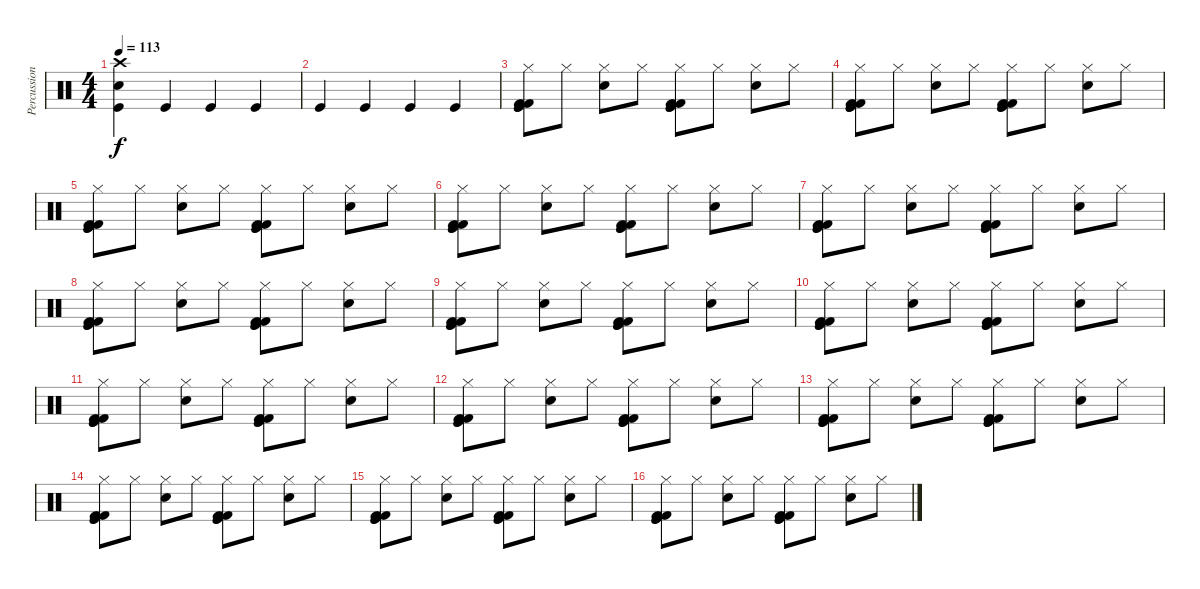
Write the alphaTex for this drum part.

\track ("Percussions" "Percussion") {instrument percussion}
\staff {score}
\articulation defaults
\ts (4 4)
\tempo 113
\clef neutral
\ks c
("Kick (hit)" "Electric Snare (hit)" "Crash high (hit)").4{dy f} "Kick (hit)".4 "Kick (hit)".4 "Kick (hit)".4 |
"Kick (hit)".4 "Kick (hit)".4 "Kick (hit)".4 "Kick (hit)".4 |
("Kick (hit)" "Hi-Hat (closed)" "Kick (hit) 2" "Kick (hit)" "Kick (hit) 2").8 "Hi-Hat (closed)".8 ("Hi-Hat (closed)" "Electric Snare (hit)").8 "Hi-Hat (closed)".8 ("Kick (hit)" "Hi-Hat (closed)" "Kick (hit) 2" "Kick (hit)" "Kick (hit) 2").8 "Hi-Hat (closed)".8 ("Hi-Hat (closed)" "Electric Snare (hit)").8 "Hi-Hat (closed)".8 |
("Kick (hit)" "Hi-Hat (closed)" "Kick (hit) 2" "Kick (hit)" "Kick (hit) 2").8 "Hi-Hat (closed)".8 ("Hi-Hat (closed)" "Electric Snare (hit)").8 "Hi-Hat (closed)".8 ("Kick (hit)" "Hi-Hat (closed)" "Kick (hit) 2" "Kick (hit)" "Kick (hit) 2").8 "Hi-Hat (closed)".8 ("Hi-Hat (closed)" "Electric Snare (hit)").8 "Hi-Hat (closed)".8 |
("Kick (hit)" "Hi-Hat (closed)" "Kick (hit) 2" "Kick (hit)" "Kick (hit) 2").8 "Hi-Hat (closed)".8 ("Hi-Hat (closed)" "Electric Snare (hit)").8 "Hi-Hat (closed)".8 ("Kick (hit)" "Hi-Hat (closed)" "Kick (hit) 2" "Kick (hit)" "Kick (hit) 2").8 "Hi-Hat (closed)".8 ("Hi-Hat (closed)" "Electric Snare (hit)").8 "Hi-Hat (closed)".8 |
("Kick (hit)" "Hi-Hat (closed)" "Kick (hit) 2" "Kick (hit)" "Kick (hit) 2").8 "Hi-Hat (closed)".8 ("Hi-Hat (closed)" "Electric Snare (hit)").8 "Hi-Hat (closed)".8 ("Kick (hit)" "Hi-Hat (closed)" "Kick (hit) 2" "Kick (hit)" "Kick (hit) 2").8 "Hi-Hat (closed)".8 ("Hi-Hat (closed)" "Electric Snare (hit)").8 "Hi-Hat (closed)".8 |
("Kick (hit)" "Hi-Hat (closed)" "Kick (hit) 2" "Kick (hit)" "Kick (hit) 2").8 "Hi-Hat (closed)".8 ("Hi-Hat (closed)" "Electric Snare (hit)").8 "Hi-Hat (closed)".8 ("Kick (hit)" "Hi-Hat (closed)" "Kick (hit) 2" "Kick (hit)" "Kick (hit) 2").8 "Hi-Hat (closed)".8 ("Hi-Hat (closed)" "Electric Snare (hit)").8 "Hi-Hat (closed)".8 |
("Kick (hit)" "Hi-Hat (closed)" "Kick (hit) 2" "Kick (hit)" "Kick (hit) 2").8 "Hi-Hat (closed)".8 ("Hi-Hat (closed)" "Electric Snare (hit)").8 "Hi-Hat (closed)".8 ("Kick (hit)" "Hi-Hat (closed)" "Kick (hit) 2" "Kick (hit)" "Kick (hit) 2").8 "Hi-Hat (closed)".8 ("Hi-Hat (closed)" "Electric Snare (hit)").8 "Hi-Hat (closed)".8 |
("Kick (hit)" "Hi-Hat (closed)" "Kick (hit) 2" "Kick (hit)" "Kick (hit) 2").8 "Hi-Hat (closed)".8 ("Hi-Hat (closed)" "Electric Snare (hit)").8 "Hi-Hat (closed)".8 ("Kick (hit)" "Hi-Hat (closed)" "Kick (hit) 2" "Kick (hit)" "Kick (hit) 2").8 "Hi-Hat (closed)".8 ("Hi-Hat (closed)" "Electric Snare (hit)").8 "Hi-Hat (closed)".8 |
("Kick (hit)" "Hi-Hat (closed)" "Kick (hit) 2" "Kick (hit)" "Kick (hit) 2").8 "Hi-Hat (closed)".8 ("Hi-Hat (closed)" "Electric Snare (hit)").8 "Hi-Hat (closed)".8 ("Kick (hit)" "Hi-Hat (closed)" "Kick (hit) 2" "Kick (hit)" "Kick (hit) 2").8 "Hi-Hat (closed)".8 ("Hi-Hat (closed)" "Electric Snare (hit)").8 "Hi-Hat (closed)".8 |
("Kick (hit)" "Hi-Hat (closed)" "Kick (hit) 2" "Kick (hit)" "Kick (hit) 2").8 "Hi-Hat (closed)".8 ("Hi-Hat (closed)" "Electric Snare (hit)").8 "Hi-Hat (closed)".8 ("Kick (hit)" "Hi-Hat (closed)" "Kick (hit) 2" "Kick (hit)" "Kick (hit) 2").8 "Hi-Hat (closed)".8 ("Hi-Hat (closed)" "Electric Snare (hit)").8 "Hi-Hat (closed)".8 |
("Kick (hit)" "Hi-Hat (closed)" "Kick (hit) 2" "Kick (hit)" "Kick (hit) 2").8 "Hi-Hat (closed)".8 ("Hi-Hat (closed)" "Electric Snare (hit)").8 "Hi-Hat (closed)".8 ("Kick (hit)" "Hi-Hat (closed)" "Kick (hit) 2" "Kick (hit)" "Kick (hit) 2").8 "Hi-Hat (closed)".8 ("Hi-Hat (closed)" "Electric Snare (hit)").8 "Hi-Hat (closed)".8 |
("Kick (hit)" "Hi-Hat (closed)" "Kick (hit) 2" "Kick (hit)" "Kick (hit) 2").8 "Hi-Hat (closed)".8 ("Hi-Hat (closed)" "Electric Snare (hit)").8 "Hi-Hat (closed)".8 ("Kick (hit)" "Hi-Hat (closed)" "Kick (hit) 2" "Kick (hit)" "Kick (hit) 2").8 "Hi-Hat (closed)".8 ("Hi-Hat (closed)" "Electric Snare (hit)").8 "Hi-Hat (closed)".8 |
("Kick (hit)" "Hi-Hat (closed)" "Kick (hit) 2" "Kick (hit)" "Kick (hit) 2").8 "Hi-Hat (closed)".8 ("Hi-Hat (closed)" "Electric Snare (hit)").8 "Hi-Hat (closed)".8 ("Kick (hit)" "Hi-Hat (closed)" "Kick (hit) 2" "Kick (hit)" "Kick (hit) 2").8 "Hi-Hat (closed)".8 ("Hi-Hat (closed)" "Electric Snare (hit)").8 "Hi-Hat (closed)".8 |
("Kick (hit)" "Hi-Hat (closed)" "Kick (hit) 2" "Kick (hit)" "Kick (hit) 2").8 "Hi-Hat (closed)".8 ("Hi-Hat (closed)" "Electric Snare (hit)").8 "Hi-Hat (closed)".8 ("Kick (hit)" "Hi-Hat (closed)" "Kick (hit) 2" "Kick (hit)" "Kick (hit) 2").8 "Hi-Hat (closed)".8 ("Hi-Hat (closed)" "Electric Snare (hit)").8 "Hi-Hat (closed)".8 |
("Kick (hit)" "Hi-Hat (closed)" "Kick (hit) 2" "Kick (hit)" "Kick (hit) 2").8 "Hi-Hat (closed)".8 ("Hi-Hat (closed)" "Electric Snare (hit)").8 "Hi-Hat (closed)".8 ("Kick (hit)" "Hi-Hat (closed)" "Kick (hit) 2" "Kick (hit)" "Kick (hit) 2").8 "Hi-Hat (closed)".8 ("Hi-Hat (closed)" "Electric Snare (hit)").8 "Hi-Hat (closed)".8
